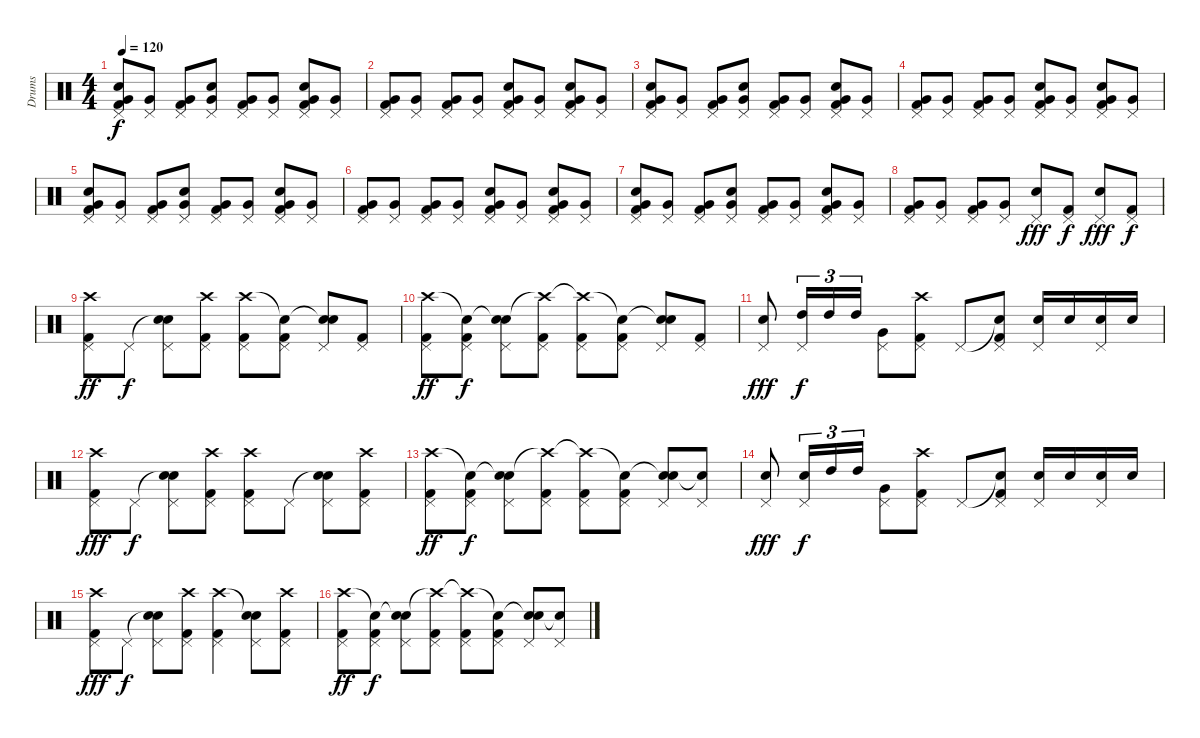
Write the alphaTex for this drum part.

\track ("Drums" "Drums") {instrument percussion}
\staff {score}
\articulation defaults
\ts (4 4)
\tempo 120
\clef neutral
\ks c
("Pedal Hi-Hat (hit)" "Electric Snare (hit)" "Very Low Tom (hit)" "Kick (hit) 2").8{dy f} ("Pedal Hi-Hat (hit)" "Very Low Tom (hit)").8 ("Pedal Hi-Hat (hit)" "Very Low Tom (hit)" "Kick (hit) 2").8 ("Pedal Hi-Hat (hit)" "Electric Snare (hit)" "Very Low Tom (hit)").8 ("Pedal Hi-Hat (hit)" "Very Low Tom (hit)" "Kick (hit) 2").8 ("Pedal Hi-Hat (hit)" "Very Low Tom (hit)").8 ("Pedal Hi-Hat (hit)" "Electric Snare (hit)" "Very Low Tom (hit)" "Kick (hit) 2").8 ("Pedal Hi-Hat (hit)" "Very Low Tom (hit)").8 |
("Pedal Hi-Hat (hit)" "Very Low Tom (hit)" "Kick (hit) 2").8 ("Pedal Hi-Hat (hit)" "Very Low Tom (hit)").8 ("Pedal Hi-Hat (hit)" "Very Low Tom (hit)" "Kick (hit) 2").8 ("Pedal Hi-Hat (hit)" "Very Low Tom (hit)").8 ("Pedal Hi-Hat (hit)" "Electric Snare (hit)" "Very Low Tom (hit)" "Kick (hit) 2").8 ("Pedal Hi-Hat (hit)" "Very Low Tom (hit)").8 ("Pedal Hi-Hat (hit)" "Electric Snare (hit)" "Very Low Tom (hit)" "Kick (hit) 2").8 ("Pedal Hi-Hat (hit)" "Very Low Tom (hit)").8 |
("Pedal Hi-Hat (hit)" "Electric Snare (hit)" "Very Low Tom (hit)" "Kick (hit) 2").8 ("Pedal Hi-Hat (hit)" "Very Low Tom (hit)").8 ("Pedal Hi-Hat (hit)" "Very Low Tom (hit)" "Kick (hit) 2").8 ("Pedal Hi-Hat (hit)" "Electric Snare (hit)" "Very Low Tom (hit)").8 ("Pedal Hi-Hat (hit)" "Very Low Tom (hit)" "Kick (hit) 2").8 ("Pedal Hi-Hat (hit)" "Very Low Tom (hit)").8 ("Pedal Hi-Hat (hit)" "Electric Snare (hit)" "Very Low Tom (hit)" "Kick (hit) 2").8 ("Pedal Hi-Hat (hit)" "Very Low Tom (hit)").8 |
("Pedal Hi-Hat (hit)" "Very Low Tom (hit)" "Kick (hit) 2").8 ("Pedal Hi-Hat (hit)" "Very Low Tom (hit)").8 ("Pedal Hi-Hat (hit)" "Very Low Tom (hit)" "Kick (hit) 2").8 ("Pedal Hi-Hat (hit)" "Very Low Tom (hit)").8 ("Pedal Hi-Hat (hit)" "Electric Snare (hit)" "Very Low Tom (hit)" "Kick (hit) 2").8 ("Pedal Hi-Hat (hit)" "Very Low Tom (hit)").8 ("Pedal Hi-Hat (hit)" "Electric Snare (hit)" "Very Low Tom (hit)" "Kick (hit) 2").8 ("Pedal Hi-Hat (hit)" "Very Low Tom (hit)").8 |
("Pedal Hi-Hat (hit)" "Electric Snare (hit)" "Very Low Tom (hit)" "Kick (hit) 2").8 ("Pedal Hi-Hat (hit)" "Very Low Tom (hit)").8 ("Pedal Hi-Hat (hit)" "Very Low Tom (hit)" "Kick (hit) 2").8 ("Pedal Hi-Hat (hit)" "Electric Snare (hit)" "Very Low Tom (hit)").8 ("Pedal Hi-Hat (hit)" "Very Low Tom (hit)" "Kick (hit) 2").8 ("Pedal Hi-Hat (hit)" "Very Low Tom (hit)").8 ("Pedal Hi-Hat (hit)" "Electric Snare (hit)" "Very Low Tom (hit)" "Kick (hit) 2").8 ("Pedal Hi-Hat (hit)" "Very Low Tom (hit)").8 |
("Pedal Hi-Hat (hit)" "Very Low Tom (hit)" "Kick (hit) 2").8 ("Pedal Hi-Hat (hit)" "Very Low Tom (hit)").8 ("Pedal Hi-Hat (hit)" "Very Low Tom (hit)" "Kick (hit) 2").8 ("Pedal Hi-Hat (hit)" "Very Low Tom (hit)").8 ("Pedal Hi-Hat (hit)" "Electric Snare (hit)" "Very Low Tom (hit)" "Kick (hit) 2").8 ("Pedal Hi-Hat (hit)" "Very Low Tom (hit)").8 ("Pedal Hi-Hat (hit)" "Electric Snare (hit)" "Very Low Tom (hit)" "Kick (hit) 2").8 ("Pedal Hi-Hat (hit)" "Very Low Tom (hit)").8 |
("Pedal Hi-Hat (hit)" "Electric Snare (hit)" "Very Low Tom (hit)" "Kick (hit) 2").8 ("Pedal Hi-Hat (hit)" "Very Low Tom (hit)").8 ("Pedal Hi-Hat (hit)" "Very Low Tom (hit)" "Kick (hit) 2").8 ("Pedal Hi-Hat (hit)" "Electric Snare (hit)" "Very Low Tom (hit)").8 ("Pedal Hi-Hat (hit)" "Very Low Tom (hit)" "Kick (hit) 2").8 ("Pedal Hi-Hat (hit)" "Very Low Tom (hit)").8 ("Pedal Hi-Hat (hit)" "Electric Snare (hit)" "Very Low Tom (hit)" "Kick (hit) 2").8 ("Pedal Hi-Hat (hit)" "Very Low Tom (hit)").8 |
("Pedal Hi-Hat (hit)" "Very Low Tom (hit)" "Kick (hit) 2").8 ("Pedal Hi-Hat (hit)" "Very Low Tom (hit)").8 ("Pedal Hi-Hat (hit)" "Very Low Tom (hit)" "Kick (hit) 2").8 ("Pedal Hi-Hat (hit)" "Very Low Tom (hit)").8 ("Pedal Hi-Hat (hit)" "Electric Snare (hit)").8{dy fff} ("Pedal Hi-Hat (hit)" "Kick (hit) 2").8{dy f} ("Pedal Hi-Hat (hit)" "Electric Snare (hit)").8{dy fff} ("Pedal Hi-Hat (hit)" "Kick (hit) 2").8{dy f} |
("Crash high (hit)" "Pedal Hi-Hat (hit)" "Kick (hit) 2").8{dy ff} "Pedal Hi-Hat (hit)".8{dy f} ("Snare (hit)"{t} "Pedal Hi-Hat (hit)" "Electric Snare (hit)").8 ("Crash high (hit)" "Pedal Hi-Hat (hit)" "Kick (hit) 2").8 ("Crash high (hit)" "Pedal Hi-Hat (hit)" "Kick (hit) 2").8 ("Snare (hit)"{t} "Pedal Hi-Hat (hit)" "Kick (hit) 2").8 ("Snare (hit)"{t} "Pedal Hi-Hat (hit)" "Electric Snare (hit)").8 ("Pedal Hi-Hat (hit)" "Kick (hit) 2").8 |
("Crash high (hit)" "Pedal Hi-Hat (hit)" "Kick (hit) 2").8{dy ff} ("Snare (hit)"{t} "Pedal Hi-Hat (hit)" "Kick (hit) 2").8{dy f} ("Snare (hit)"{t} "Pedal Hi-Hat (hit)" "Electric Snare (hit)").8 ("Crash high (hit)"{t} "Pedal Hi-Hat (hit)" "Kick (hit) 2").8 ("Crash high (hit)"{t} "Pedal Hi-Hat (hit)" "Kick (hit) 2").8 ("Snare (hit)"{t} "Pedal Hi-Hat (hit)" "Kick (hit) 2").8 ("Snare (hit)"{t} "Pedal Hi-Hat (hit)" "Electric Snare (hit)").8 ("Pedal Hi-Hat (hit)" "Kick (hit) 2").8 |
("Pedal Hi-Hat (hit)" "Electric Snare (hit)").8{dy fff} ("Pedal Hi-Hat (hit)" "High Tom (hit)").16{tu (3 2) dy f} "High Tom (hit)".16{tu (3 2)} "High Tom (hit)".16{tu (3 2)} ("Pedal Hi-Hat (hit)" "Very Low Tom (hit)").8 ("Crash high (hit)" "Pedal Hi-Hat (hit)" "Kick (hit) 2").8 "Pedal Hi-Hat (hit)".8 ("Snare (hit)"{t} "Pedal Hi-Hat (hit)" "Kick (hit) 2").8 ("Pedal Hi-Hat (hit)" "Electric Snare (hit)").16 "Electric Snare (hit)".16 ("Pedal Hi-Hat (hit)" "Electric Snare (hit)").16 "Electric Snare (hit)".16 |
("Crash high (hit)" "Pedal Hi-Hat (hit)" "Kick (hit) 2").8{dy fff} "Pedal Hi-Hat (hit)".8{dy f} ("Snare (hit)"{t} "Pedal Hi-Hat (hit)" "Electric Snare (hit)").8 ("Crash high (hit)" "Pedal Hi-Hat (hit)" "Kick (hit) 2").8 ("Crash high (hit)" "Pedal Hi-Hat (hit)" "Kick (hit) 2").8 "Pedal Hi-Hat (hit)".8 ("Snare (hit)"{t} "Pedal Hi-Hat (hit)" "Electric Snare (hit)").8 ("Crash high (hit)" "Pedal Hi-Hat (hit)" "Kick (hit) 2").8 |
("Crash high (hit)" "Pedal Hi-Hat (hit)" "Kick (hit) 2").8{dy ff} ("Snare (hit)"{t} "Pedal Hi-Hat (hit)" "Kick (hit) 2").8{dy f} ("Snare (hit)"{t} "Pedal Hi-Hat (hit)" "Electric Snare (hit)").8 ("Crash high (hit)"{t} "Pedal Hi-Hat (hit)" "Kick (hit) 2").8 ("Crash high (hit)"{t} "Pedal Hi-Hat (hit)" "Kick (hit) 2").8 ("Snare (hit)"{t} "Pedal Hi-Hat (hit)" "Kick (hit) 2").8 ("Snare (hit)"{t} "Pedal Hi-Hat (hit)" "Electric Snare (hit)").8 ("Snare (hit)"{t} "Pedal Hi-Hat (hit)").8 |
("Pedal Hi-Hat (hit)" "Electric Snare (hit)").8{dy fff} ("Pedal Hi-Hat (hit)" "Electric Snare (hit)").16{tu (3 2) dy f} "High Tom (hit)".16{tu (3 2)} "High Tom (hit)".16{tu (3 2)} ("Pedal Hi-Hat (hit)" "Very Low Tom (hit)").8 ("Crash high (hit)" "Pedal Hi-Hat (hit)" "Kick (hit) 2").8 "Pedal Hi-Hat (hit)".8 ("Snare (hit)"{t} "Pedal Hi-Hat (hit)" "Kick (hit) 2").8 ("Pedal Hi-Hat (hit)" "Electric Snare (hit)").16 "Electric Snare (hit)".16 ("Pedal Hi-Hat (hit)" "Electric Snare (hit)").16 "Electric Snare (hit)".16 |
("Crash high (hit)" "Pedal Hi-Hat (hit)" "Kick (hit) 2").8{dy fff} "Pedal Hi-Hat (hit)".8{dy f} ("Snare (hit)"{t} "Pedal Hi-Hat (hit)" "Electric Snare (hit)").8 ("Crash high (hit)" "Pedal Hi-Hat (hit)" "Kick (hit) 2").8 ("Crash high (hit)" "Pedal Hi-Hat (hit)" "Kick (hit) 2").4 ("Snare (hit)"{t} "Pedal Hi-Hat (hit)" "Electric Snare (hit)").8 ("Crash high (hit)" "Pedal Hi-Hat (hit)" "Kick (hit) 2").8 |
("Crash high (hit)" "Pedal Hi-Hat (hit)" "Kick (hit) 2").8{dy ff} ("Snare (hit)"{t} "Pedal Hi-Hat (hit)" "Kick (hit) 2").8{dy f} ("Snare (hit)"{t} "Pedal Hi-Hat (hit)" "Electric Snare (hit)").8 ("Crash high (hit)"{t} "Pedal Hi-Hat (hit)" "Kick (hit) 2").8 ("Crash high (hit)"{t} "Pedal Hi-Hat (hit)" "Kick (hit) 2").8 ("Snare (hit)"{t} "Pedal Hi-Hat (hit)" "Kick (hit) 2").8 ("Snare (hit)"{t} "Pedal Hi-Hat (hit)" "Electric Snare (hit)").8 ("Snare (hit)"{t} "Pedal Hi-Hat (hit)").8
